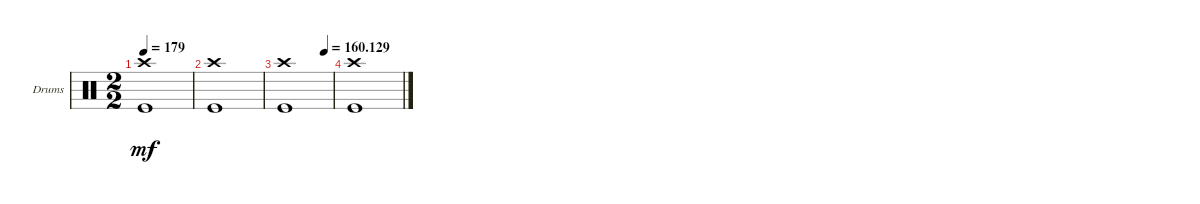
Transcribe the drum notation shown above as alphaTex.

\defaultSystemsLayout 4
\bracketExtendMode groupsimilarinstruments
\firstSystemTrackNameOrientation horizontal
\otherSystemsTrackNameOrientation horizontal
\track ("Drumkit" "Drums") {instrument percussion}
\staff {score}
\articulation defaults
\ts (2 2)
\tempo 179
\clef neutral
\ks c
("Crash high (hit)" "Kick (hit)").1{dy mf} |
("Crash high (hit)" "Kick (hit)").1 |
\tempo (160.129 0.833333)
("Crash high (hit)" "Kick (hit)").1 |
("Crash high (hit)" "Kick (hit)").1
